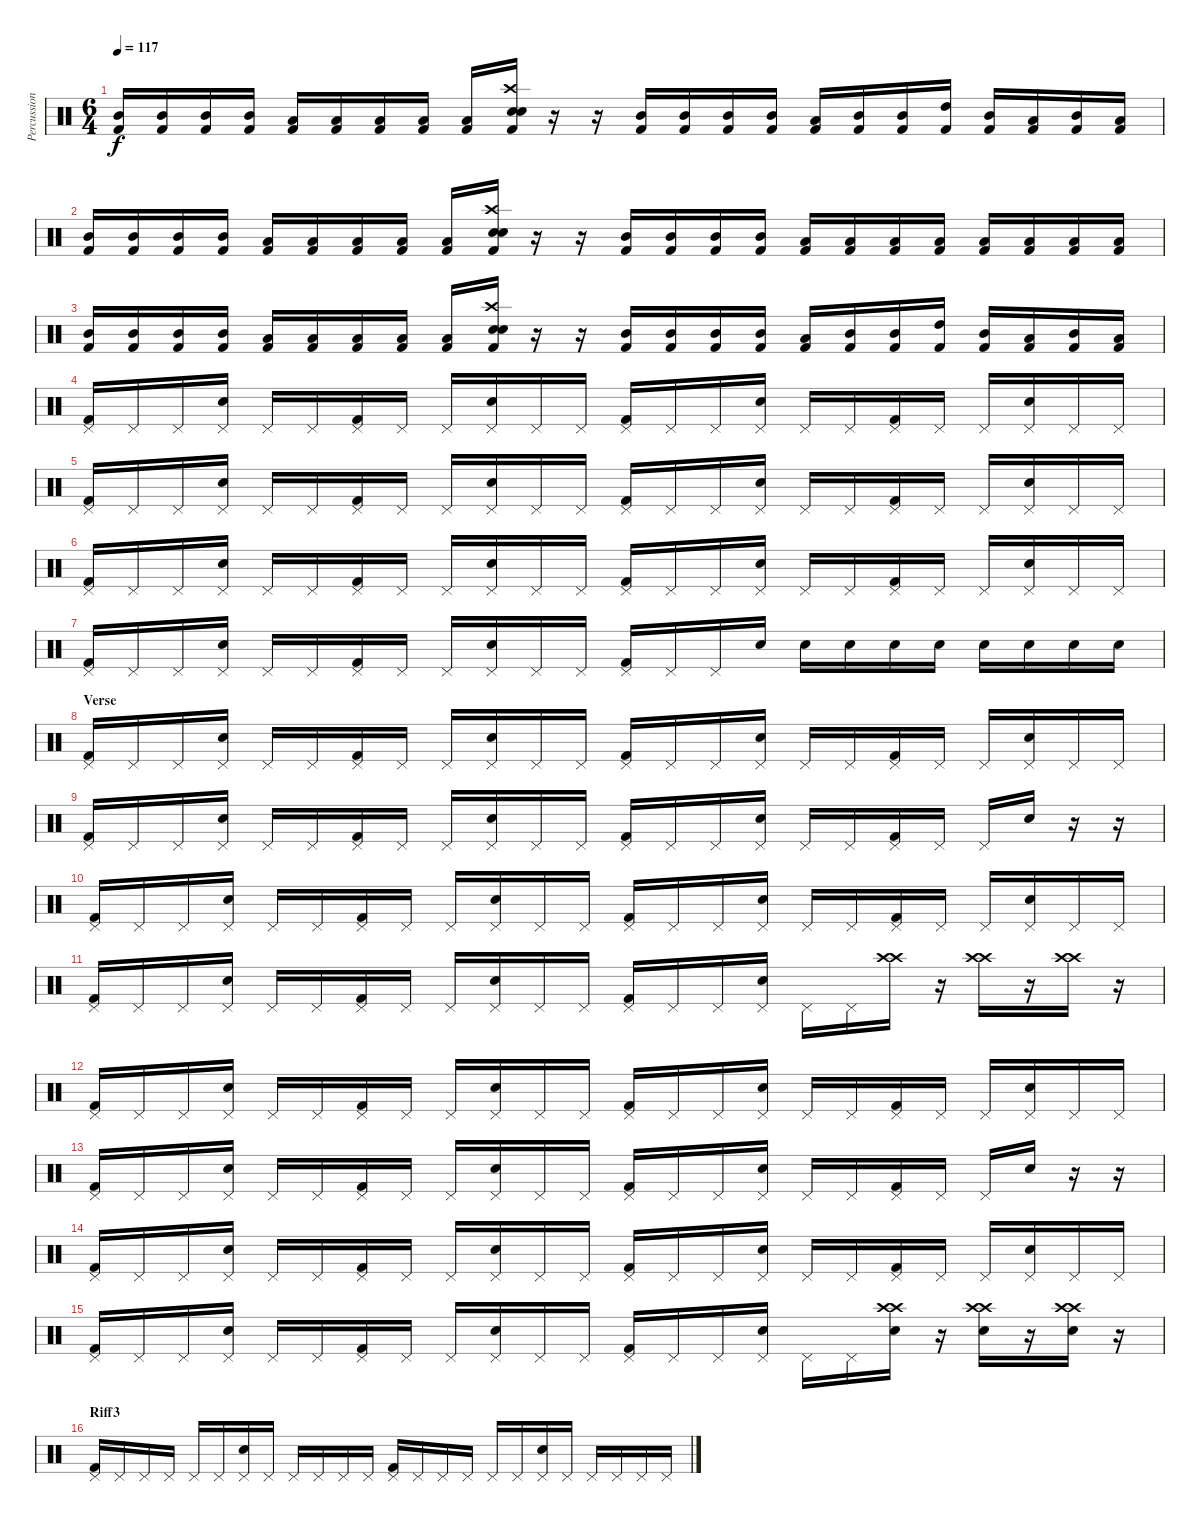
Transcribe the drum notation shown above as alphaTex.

\track ("Percussions" "Percussion") {instrument percussion}
\staff {score}
\articulation defaults
\ts (6 4)
\tempo 117
\clef neutral
\ks c
("Mid Tom (hit)" "Kick (hit) 2").16{dy f} ("Mid Tom (hit)" "Kick (hit) 2").16 ("Mid Tom (hit)" "Kick (hit) 2").16 ("Mid Tom (hit)" "Kick (hit) 2").16 ("Low Tom (hit)" "Kick (hit) 2").16 ("Low Tom (hit)" "Kick (hit) 2").16 ("Low Tom (hit)" "Kick (hit) 2").16 ("Low Floor Tom (hit)" "Kick (hit) 2").16 ("Low Floor Tom (hit)" "Kick (hit) 2").16 ("Crash high (hit)" "Electric Snare (hit)" "Electric Snare (hit)" "Kick (hit) 2").16 r.16 r.16 ("Mid Tom (hit)" "Kick (hit) 2").16 ("Mid Tom (hit)" "Kick (hit) 2").16 ("Mid Tom (hit)" "Kick (hit) 2").16 ("Mid Tom (hit)" "Kick (hit) 2").16 ("Low Tom (hit)" "Kick (hit) 2").16 ("Mid Tom (hit)" "Kick (hit) 2").16 ("Mid Tom (hit)" "Kick (hit) 2").16 ("High Tom (hit)" "Kick (hit) 2").16 ("Mid Tom (hit)" "Kick (hit) 2").16 ("Low Tom (hit)" "Kick (hit) 2").16 ("Mid Tom (hit)" "Kick (hit) 2").16 ("Low Tom (hit)" "Kick (hit) 2").16 |
("Mid Tom (hit)" "Kick (hit) 2").16 ("Mid Tom (hit)" "Kick (hit) 2").16 ("Mid Tom (hit)" "Kick (hit) 2").16 ("Mid Tom (hit)" "Kick (hit) 2").16 ("Low Tom (hit)" "Kick (hit) 2").16 ("Low Tom (hit)" "Kick (hit) 2").16 ("Low Tom (hit)" "Kick (hit) 2").16 ("Low Floor Tom (hit)" "Kick (hit) 2").16 ("Low Floor Tom (hit)" "Kick (hit) 2").16 ("Crash high (hit)" "Electric Snare (hit)" "Electric Snare (hit)" "Kick (hit) 2").16 r.16 r.16 ("Mid Tom (hit)" "Kick (hit) 2").16 ("Mid Tom (hit)" "Kick (hit) 2").16 ("Mid Tom (hit)" "Kick (hit) 2").16 ("Mid Tom (hit)" "Kick (hit) 2").16 ("Low Tom (hit)" "Kick (hit) 2").16 ("Low Tom (hit)" "Kick (hit) 2").16 ("Low Tom (hit)" "Kick (hit) 2").16 ("Low Floor Tom (hit)" "Kick (hit) 2").16 ("Low Floor Tom (hit)" "Kick (hit) 2").16 ("Low Floor Tom (hit)" "Kick (hit) 2").16 ("Low Floor Tom (hit)" "Kick (hit) 2").16 ("Low Floor Tom (hit)" "Kick (hit) 2").16 |
("Mid Tom (hit)" "Kick (hit) 2").16 ("Mid Tom (hit)" "Kick (hit) 2").16 ("Mid Tom (hit)" "Kick (hit) 2").16 ("Mid Tom (hit)" "Kick (hit) 2").16 ("Low Tom (hit)" "Kick (hit) 2").16 ("Low Tom (hit)" "Kick (hit) 2").16 ("Low Tom (hit)" "Kick (hit) 2").16 ("Low Floor Tom (hit)" "Kick (hit) 2").16 ("Low Floor Tom (hit)" "Kick (hit) 2").16 ("Crash high (hit)" "Electric Snare (hit)" "Electric Snare (hit)" "Kick (hit) 2").16 r.16 r.16 ("Mid Tom (hit)" "Kick (hit) 2").16 ("Mid Tom (hit)" "Kick (hit) 2").16 ("Mid Tom (hit)" "Kick (hit) 2").16 ("Mid Tom (hit)" "Kick (hit) 2").16 ("Low Tom (hit)" "Kick (hit) 2").16 ("Mid Tom (hit)" "Kick (hit) 2").16 ("Mid Tom (hit)" "Kick (hit) 2").16 ("High Tom (hit)" "Kick (hit) 2").16 ("Mid Tom (hit)" "Kick (hit) 2").16 ("Low Tom (hit)" "Kick (hit) 2").16 ("Mid Tom (hit)" "Kick (hit) 2").16 ("Low Tom (hit)" "Kick (hit) 2").16 |
("Pedal Hi-Hat (hit)" "Kick (hit) 2").16 "Pedal Hi-Hat (hit)".16 "Pedal Hi-Hat (hit)".16 ("Pedal Hi-Hat (hit)" "Electric Snare (hit)").16 "Pedal Hi-Hat (hit)".16 "Pedal Hi-Hat (hit)".16 ("Pedal Hi-Hat (hit)" "Kick (hit) 2").16 "Pedal Hi-Hat (hit)".16 "Pedal Hi-Hat (hit)".16 ("Pedal Hi-Hat (hit)" "Electric Snare (hit)").16 "Pedal Hi-Hat (hit)".16 "Pedal Hi-Hat (hit)".16 ("Pedal Hi-Hat (hit)" "Kick (hit) 2").16 "Pedal Hi-Hat (hit)".16 "Pedal Hi-Hat (hit)".16 ("Pedal Hi-Hat (hit)" "Electric Snare (hit)").16 "Pedal Hi-Hat (hit)".16 "Pedal Hi-Hat (hit)".16 ("Pedal Hi-Hat (hit)" "Kick (hit) 2").16 "Pedal Hi-Hat (hit)".16 "Pedal Hi-Hat (hit)".16 ("Pedal Hi-Hat (hit)" "Electric Snare (hit)").16 "Pedal Hi-Hat (hit)".16 "Pedal Hi-Hat (hit)".16 |
("Pedal Hi-Hat (hit)" "Kick (hit) 2").16 "Pedal Hi-Hat (hit)".16 "Pedal Hi-Hat (hit)".16 ("Pedal Hi-Hat (hit)" "Electric Snare (hit)").16 "Pedal Hi-Hat (hit)".16 "Pedal Hi-Hat (hit)".16 ("Pedal Hi-Hat (hit)" "Kick (hit) 2").16 "Pedal Hi-Hat (hit)".16 "Pedal Hi-Hat (hit)".16 ("Pedal Hi-Hat (hit)" "Electric Snare (hit)").16 "Pedal Hi-Hat (hit)".16 "Pedal Hi-Hat (hit)".16 ("Pedal Hi-Hat (hit)" "Kick (hit) 2").16 "Pedal Hi-Hat (hit)".16 "Pedal Hi-Hat (hit)".16 ("Pedal Hi-Hat (hit)" "Electric Snare (hit)").16 "Pedal Hi-Hat (hit)".16 "Pedal Hi-Hat (hit)".16 ("Pedal Hi-Hat (hit)" "Kick (hit) 2").16 "Pedal Hi-Hat (hit)".16 "Pedal Hi-Hat (hit)".16 ("Pedal Hi-Hat (hit)" "Electric Snare (hit)").16 "Pedal Hi-Hat (hit)".16 "Pedal Hi-Hat (hit)".16 |
("Pedal Hi-Hat (hit)" "Kick (hit) 2").16 "Pedal Hi-Hat (hit)".16 "Pedal Hi-Hat (hit)".16 ("Pedal Hi-Hat (hit)" "Electric Snare (hit)").16 "Pedal Hi-Hat (hit)".16 "Pedal Hi-Hat (hit)".16 ("Pedal Hi-Hat (hit)" "Kick (hit) 2").16 "Pedal Hi-Hat (hit)".16 "Pedal Hi-Hat (hit)".16 ("Pedal Hi-Hat (hit)" "Electric Snare (hit)").16 "Pedal Hi-Hat (hit)".16 "Pedal Hi-Hat (hit)".16 ("Pedal Hi-Hat (hit)" "Kick (hit) 2").16 "Pedal Hi-Hat (hit)".16 "Pedal Hi-Hat (hit)".16 ("Pedal Hi-Hat (hit)" "Electric Snare (hit)").16 "Pedal Hi-Hat (hit)".16 "Pedal Hi-Hat (hit)".16 ("Pedal Hi-Hat (hit)" "Kick (hit) 2").16 "Pedal Hi-Hat (hit)".16 "Pedal Hi-Hat (hit)".16 ("Pedal Hi-Hat (hit)" "Electric Snare (hit)").16 "Pedal Hi-Hat (hit)".16 "Pedal Hi-Hat (hit)".16 |
("Pedal Hi-Hat (hit)" "Kick (hit) 2").16 "Pedal Hi-Hat (hit)".16 "Pedal Hi-Hat (hit)".16 ("Pedal Hi-Hat (hit)" "Electric Snare (hit)").16 "Pedal Hi-Hat (hit)".16 "Pedal Hi-Hat (hit)".16 ("Pedal Hi-Hat (hit)" "Kick (hit) 2").16 "Pedal Hi-Hat (hit)".16 "Pedal Hi-Hat (hit)".16 ("Pedal Hi-Hat (hit)" "Electric Snare (hit)").16 "Pedal Hi-Hat (hit)".16 "Pedal Hi-Hat (hit)".16 ("Pedal Hi-Hat (hit)" "Kick (hit) 2").16 "Pedal Hi-Hat (hit)".16 "Pedal Hi-Hat (hit)".16 "Electric Snare (hit)".16 "Electric Snare (hit)".16 "Electric Snare (hit)".16 "Electric Snare (hit)".16 "Electric Snare (hit)".16 "Electric Snare (hit)".16 "Electric Snare (hit)".16 "Electric Snare (hit)".16 "Electric Snare (hit)".16 |
\section ("" "Verse")
("Pedal Hi-Hat (hit)" "Kick (hit) 2").16 "Pedal Hi-Hat (hit)".16 "Pedal Hi-Hat (hit)".16 ("Pedal Hi-Hat (hit)" "Electric Snare (hit)").16 "Pedal Hi-Hat (hit)".16 "Pedal Hi-Hat (hit)".16 ("Pedal Hi-Hat (hit)" "Kick (hit) 2").16 "Pedal Hi-Hat (hit)".16 "Pedal Hi-Hat (hit)".16 ("Pedal Hi-Hat (hit)" "Electric Snare (hit)").16 "Pedal Hi-Hat (hit)".16 "Pedal Hi-Hat (hit)".16 ("Pedal Hi-Hat (hit)" "Kick (hit) 2").16 "Pedal Hi-Hat (hit)".16 "Pedal Hi-Hat (hit)".16 ("Pedal Hi-Hat (hit)" "Electric Snare (hit)").16 "Pedal Hi-Hat (hit)".16 "Pedal Hi-Hat (hit)".16 ("Pedal Hi-Hat (hit)" "Kick (hit) 2").16 "Pedal Hi-Hat (hit)".16 "Pedal Hi-Hat (hit)".16 ("Pedal Hi-Hat (hit)" "Electric Snare (hit)").16 "Pedal Hi-Hat (hit)".16 "Pedal Hi-Hat (hit)".16 |
("Pedal Hi-Hat (hit)" "Kick (hit) 2").16 "Pedal Hi-Hat (hit)".16 "Pedal Hi-Hat (hit)".16 ("Pedal Hi-Hat (hit)" "Electric Snare (hit)").16 "Pedal Hi-Hat (hit)".16 "Pedal Hi-Hat (hit)".16 ("Pedal Hi-Hat (hit)" "Kick (hit) 2").16 "Pedal Hi-Hat (hit)".16 "Pedal Hi-Hat (hit)".16 ("Pedal Hi-Hat (hit)" "Electric Snare (hit)").16 "Pedal Hi-Hat (hit)".16 "Pedal Hi-Hat (hit)".16 ("Pedal Hi-Hat (hit)" "Kick (hit) 2").16 "Pedal Hi-Hat (hit)".16 "Pedal Hi-Hat (hit)".16 ("Pedal Hi-Hat (hit)" "Electric Snare (hit)").16 "Pedal Hi-Hat (hit)".16 "Pedal Hi-Hat (hit)".16 ("Pedal Hi-Hat (hit)" "Kick (hit) 2").16 "Pedal Hi-Hat (hit)".16 "Pedal Hi-Hat (hit)".16 "Electric Snare (hit)".16 r.16 r.16 |
("Pedal Hi-Hat (hit)" "Kick (hit) 2").16 "Pedal Hi-Hat (hit)".16 "Pedal Hi-Hat (hit)".16 ("Pedal Hi-Hat (hit)" "Electric Snare (hit)").16 "Pedal Hi-Hat (hit)".16 "Pedal Hi-Hat (hit)".16 ("Pedal Hi-Hat (hit)" "Kick (hit) 2").16 "Pedal Hi-Hat (hit)".16 "Pedal Hi-Hat (hit)".16 ("Pedal Hi-Hat (hit)" "Electric Snare (hit)").16 "Pedal Hi-Hat (hit)".16 "Pedal Hi-Hat (hit)".16 ("Pedal Hi-Hat (hit)" "Kick (hit) 2").16 "Pedal Hi-Hat (hit)".16 "Pedal Hi-Hat (hit)".16 ("Pedal Hi-Hat (hit)" "Electric Snare (hit)").16 "Pedal Hi-Hat (hit)".16 "Pedal Hi-Hat (hit)".16 ("Pedal Hi-Hat (hit)" "Kick (hit) 2").16 "Pedal Hi-Hat (hit)".16 "Pedal Hi-Hat (hit)".16 ("Pedal Hi-Hat (hit)" "Electric Snare (hit)").16 "Pedal Hi-Hat (hit)".16 "Pedal Hi-Hat (hit)".16 |
("Pedal Hi-Hat (hit)" "Kick (hit) 2").16 "Pedal Hi-Hat (hit)".16 "Pedal Hi-Hat (hit)".16 ("Pedal Hi-Hat (hit)" "Electric Snare (hit)").16 "Pedal Hi-Hat (hit)".16 "Pedal Hi-Hat (hit)".16 ("Pedal Hi-Hat (hit)" "Kick (hit) 2").16 "Pedal Hi-Hat (hit)".16 "Pedal Hi-Hat (hit)".16 ("Pedal Hi-Hat (hit)" "Electric Snare (hit)").16 "Pedal Hi-Hat (hit)".16 "Pedal Hi-Hat (hit)".16 ("Pedal Hi-Hat (hit)" "Kick (hit) 2").16 "Pedal Hi-Hat (hit)".16 "Pedal Hi-Hat (hit)".16 ("Pedal Hi-Hat (hit)" "Electric Snare (hit)").16 "Pedal Hi-Hat (hit)".16 "Pedal Hi-Hat (hit)".16 ("Crash high (hit)" "Crash high (hit)").16 r.16 ("Crash high (hit)" "Crash high (hit)").16 r.16 ("Crash high (hit)" "Crash high (hit)").16 r.16 |
("Pedal Hi-Hat (hit)" "Kick (hit) 2").16 "Pedal Hi-Hat (hit)".16 "Pedal Hi-Hat (hit)".16 ("Pedal Hi-Hat (hit)" "Electric Snare (hit)").16 "Pedal Hi-Hat (hit)".16 "Pedal Hi-Hat (hit)".16 ("Pedal Hi-Hat (hit)" "Kick (hit) 2").16 "Pedal Hi-Hat (hit)".16 "Pedal Hi-Hat (hit)".16 ("Pedal Hi-Hat (hit)" "Electric Snare (hit)").16 "Pedal Hi-Hat (hit)".16 "Pedal Hi-Hat (hit)".16 ("Pedal Hi-Hat (hit)" "Kick (hit) 2").16 "Pedal Hi-Hat (hit)".16 "Pedal Hi-Hat (hit)".16 ("Pedal Hi-Hat (hit)" "Electric Snare (hit)").16 "Pedal Hi-Hat (hit)".16 "Pedal Hi-Hat (hit)".16 ("Pedal Hi-Hat (hit)" "Kick (hit) 2").16 "Pedal Hi-Hat (hit)".16 "Pedal Hi-Hat (hit)".16 ("Pedal Hi-Hat (hit)" "Electric Snare (hit)").16 "Pedal Hi-Hat (hit)".16 "Pedal Hi-Hat (hit)".16 |
("Pedal Hi-Hat (hit)" "Kick (hit) 2").16 "Pedal Hi-Hat (hit)".16 "Pedal Hi-Hat (hit)".16 ("Pedal Hi-Hat (hit)" "Electric Snare (hit)").16 "Pedal Hi-Hat (hit)".16 "Pedal Hi-Hat (hit)".16 ("Pedal Hi-Hat (hit)" "Kick (hit) 2").16 "Pedal Hi-Hat (hit)".16 "Pedal Hi-Hat (hit)".16 ("Pedal Hi-Hat (hit)" "Electric Snare (hit)").16 "Pedal Hi-Hat (hit)".16 "Pedal Hi-Hat (hit)".16 ("Pedal Hi-Hat (hit)" "Kick (hit) 2").16 "Pedal Hi-Hat (hit)".16 "Pedal Hi-Hat (hit)".16 ("Pedal Hi-Hat (hit)" "Electric Snare (hit)").16 "Pedal Hi-Hat (hit)".16 "Pedal Hi-Hat (hit)".16 ("Pedal Hi-Hat (hit)" "Kick (hit) 2").16 "Pedal Hi-Hat (hit)".16 "Pedal Hi-Hat (hit)".16 "Electric Snare (hit)".16 r.16 r.16 |
("Pedal Hi-Hat (hit)" "Kick (hit) 2").16 "Pedal Hi-Hat (hit)".16 "Pedal Hi-Hat (hit)".16 ("Pedal Hi-Hat (hit)" "Electric Snare (hit)").16 "Pedal Hi-Hat (hit)".16 "Pedal Hi-Hat (hit)".16 ("Pedal Hi-Hat (hit)" "Kick (hit) 2").16 "Pedal Hi-Hat (hit)".16 "Pedal Hi-Hat (hit)".16 ("Pedal Hi-Hat (hit)" "Electric Snare (hit)").16 "Pedal Hi-Hat (hit)".16 "Pedal Hi-Hat (hit)".16 ("Pedal Hi-Hat (hit)" "Kick (hit) 2").16 "Pedal Hi-Hat (hit)".16 "Pedal Hi-Hat (hit)".16 ("Pedal Hi-Hat (hit)" "Electric Snare (hit)").16 "Pedal Hi-Hat (hit)".16 "Pedal Hi-Hat (hit)".16 ("Pedal Hi-Hat (hit)" "Kick (hit) 2").16 "Pedal Hi-Hat (hit)".16 "Pedal Hi-Hat (hit)".16 ("Pedal Hi-Hat (hit)" "Electric Snare (hit)").16 "Pedal Hi-Hat (hit)".16 "Pedal Hi-Hat (hit)".16 |
("Pedal Hi-Hat (hit)" "Kick (hit) 2").16 "Pedal Hi-Hat (hit)".16 "Pedal Hi-Hat (hit)".16 ("Pedal Hi-Hat (hit)" "Electric Snare (hit)").16 "Pedal Hi-Hat (hit)".16 "Pedal Hi-Hat (hit)".16 ("Pedal Hi-Hat (hit)" "Kick (hit) 2").16 "Pedal Hi-Hat (hit)".16 "Pedal Hi-Hat (hit)".16 ("Pedal Hi-Hat (hit)" "Electric Snare (hit)").16 "Pedal Hi-Hat (hit)".16 "Pedal Hi-Hat (hit)".16 ("Pedal Hi-Hat (hit)" "Kick (hit) 2").16 "Pedal Hi-Hat (hit)".16 "Pedal Hi-Hat (hit)".16 ("Pedal Hi-Hat (hit)" "Electric Snare (hit)").16 "Pedal Hi-Hat (hit)".16 "Pedal Hi-Hat (hit)".16 ("Crash high (hit)" "Crash high (hit)" "Electric Snare (hit)").16 r.16 ("Crash high (hit)" "Crash high (hit)" "Electric Snare (hit)").16 r.16 ("Crash high (hit)" "Crash high (hit)" "Electric Snare (hit)").16 r.16 |
\section ("" "Riff3")
("Pedal Hi-Hat (hit)" "Kick (hit) 2").16 "Pedal Hi-Hat (hit)".16 "Pedal Hi-Hat (hit)".16 "Pedal Hi-Hat (hit)".16 "Pedal Hi-Hat (hit)".16 "Pedal Hi-Hat (hit)".16 ("Pedal Hi-Hat (hit)" "Electric Snare (hit)").16 "Pedal Hi-Hat (hit)".16 "Pedal Hi-Hat (hit)".16 "Pedal Hi-Hat (hit)".16 "Pedal Hi-Hat (hit)".16 "Pedal Hi-Hat (hit)".16 ("Pedal Hi-Hat (hit)" "Kick (hit) 2").16 "Pedal Hi-Hat (hit)".16 "Pedal Hi-Hat (hit)".16 "Pedal Hi-Hat (hit)".16 "Pedal Hi-Hat (hit)".16 "Pedal Hi-Hat (hit)".16 ("Pedal Hi-Hat (hit)" "Electric Snare (hit)").16 "Pedal Hi-Hat (hit)".16 "Pedal Hi-Hat (hit)".16 "Pedal Hi-Hat (hit)".16 "Pedal Hi-Hat (hit)".16 "Pedal Hi-Hat (hit)".16
